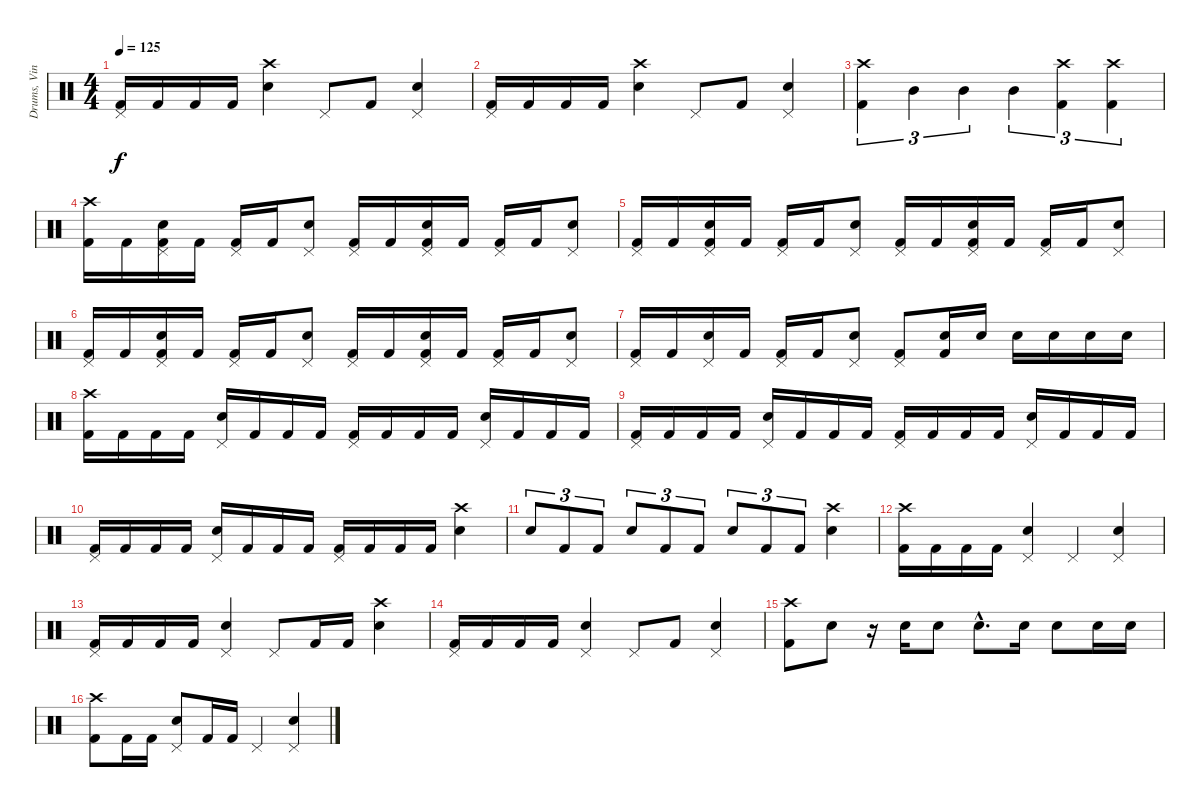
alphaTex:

\track ("Drums, Vinnie" "Drums, Vin") {instrument percussion}
\staff {score}
\articulation defaults
\ts (4 4)
\tempo 125
\clef neutral
\ks c
("Pedal Hi-Hat (hit)" "Kick (hit) 2").16{dy f} "Kick (hit) 2".16 "Kick (hit) 2".16 "Kick (hit) 2".16 ("Crash high (hit)" "Electric Snare (hit)").4 "Pedal Hi-Hat (hit)".8 "Kick (hit) 2".8 ("Pedal Hi-Hat (hit)" "Electric Snare (hit)").4 |
("Pedal Hi-Hat (hit)" "Kick (hit) 2").16 "Kick (hit) 2".16 "Kick (hit) 2".16 "Kick (hit) 2".16 ("Crash high (hit)" "Electric Snare (hit)").4 "Pedal Hi-Hat (hit)".8 "Kick (hit) 2".8 ("Pedal Hi-Hat (hit)" "Electric Snare (hit)").4 |
("Crash high (hit)" "Kick (hit) 2").4{tu (3 2)} "Mid Tom (hit)".4{tu (3 2)} "Mid Tom (hit)".4{tu (3 2)} "Mid Tom (hit)".4{tu (3 2)} ("Crash high (hit)" "Kick (hit) 2").4{tu (3 2)} ("Crash high (hit)" "Kick (hit) 2").4{tu (3 2)} |
("Crash high (hit)" "Kick (hit) 2").16 "Kick (hit) 2".16 ("Pedal Hi-Hat (hit)" "Electric Snare (hit)" "Kick (hit) 2").16 "Kick (hit) 2".16 ("Pedal Hi-Hat (hit)" "Kick (hit) 2").16 "Kick (hit) 2".16 ("Pedal Hi-Hat (hit)" "Electric Snare (hit)").8 ("Pedal Hi-Hat (hit)" "Kick (hit) 2").16 "Kick (hit) 2".16 ("Pedal Hi-Hat (hit)" "Electric Snare (hit)" "Kick (hit) 2").16 "Kick (hit) 2".16 ("Pedal Hi-Hat (hit)" "Kick (hit) 2").16 "Kick (hit) 2".16 ("Pedal Hi-Hat (hit)" "Electric Snare (hit)").8 |
("Pedal Hi-Hat (hit)" "Kick (hit) 2").16 "Kick (hit) 2".16 ("Pedal Hi-Hat (hit)" "Electric Snare (hit)" "Kick (hit) 2").16 "Kick (hit) 2".16 ("Pedal Hi-Hat (hit)" "Kick (hit) 2").16 "Kick (hit) 2".16 ("Pedal Hi-Hat (hit)" "Electric Snare (hit)").8 ("Pedal Hi-Hat (hit)" "Kick (hit) 2").16 "Kick (hit) 2".16 ("Pedal Hi-Hat (hit)" "Electric Snare (hit)" "Kick (hit) 2").16 "Kick (hit) 2".16 ("Pedal Hi-Hat (hit)" "Kick (hit) 2").16 "Kick (hit) 2".16 ("Pedal Hi-Hat (hit)" "Electric Snare (hit)").8 |
("Pedal Hi-Hat (hit)" "Kick (hit) 2").16 "Kick (hit) 2".16 ("Pedal Hi-Hat (hit)" "Electric Snare (hit)" "Kick (hit) 2").16 "Kick (hit) 2".16 ("Pedal Hi-Hat (hit)" "Kick (hit) 2").16 "Kick (hit) 2".16 ("Pedal Hi-Hat (hit)" "Electric Snare (hit)").8 ("Pedal Hi-Hat (hit)" "Kick (hit) 2").16 "Kick (hit) 2".16 ("Pedal Hi-Hat (hit)" "Electric Snare (hit)" "Kick (hit) 2").16 "Kick (hit) 2".16 ("Pedal Hi-Hat (hit)" "Kick (hit) 2").16 "Kick (hit) 2".16 ("Pedal Hi-Hat (hit)" "Electric Snare (hit)").8 |
("Pedal Hi-Hat (hit)" "Kick (hit) 2").16 "Kick (hit) 2".16 ("Pedal Hi-Hat (hit)" "Electric Snare (hit)").16 "Kick (hit) 2".16 ("Pedal Hi-Hat (hit)" "Kick (hit) 2").16 "Kick (hit) 2".16 ("Pedal Hi-Hat (hit)" "Electric Snare (hit)").8 ("Pedal Hi-Hat (hit)" "Kick (hit) 2").8 ("Electric Snare (hit)" "Kick (hit) 2").16 "Electric Snare (hit)".16 "Electric Snare (hit)".16 "Electric Snare (hit)".16 "Electric Snare (hit)".16 "Electric Snare (hit)".16 |
("Crash high (hit)" "Kick (hit) 2").16 "Kick (hit) 2".16 "Kick (hit) 2".16 "Kick (hit) 2".16 ("Pedal Hi-Hat (hit)" "Electric Snare (hit)").16 "Kick (hit) 2".16 "Kick (hit) 2".16 "Kick (hit) 2".16 ("Pedal Hi-Hat (hit)" "Kick (hit) 2").16 "Kick (hit) 2".16 "Kick (hit) 2".16 "Kick (hit) 2".16 ("Pedal Hi-Hat (hit)" "Electric Snare (hit)").16 "Kick (hit) 2".16 "Kick (hit) 2".16 "Kick (hit) 2".16 |
("Pedal Hi-Hat (hit)" "Kick (hit) 2").16 "Kick (hit) 2".16 "Kick (hit) 2".16 "Kick (hit) 2".16 ("Pedal Hi-Hat (hit)" "Electric Snare (hit)").16 "Kick (hit) 2".16 "Kick (hit) 2".16 "Kick (hit) 2".16 ("Pedal Hi-Hat (hit)" "Kick (hit) 2").16 "Kick (hit) 2".16 "Kick (hit) 2".16 "Kick (hit) 2".16 ("Pedal Hi-Hat (hit)" "Electric Snare (hit)").16 "Kick (hit) 2".16 "Kick (hit) 2".16 "Kick (hit) 2".16 |
("Pedal Hi-Hat (hit)" "Kick (hit) 2").16 "Kick (hit) 2".16 "Kick (hit) 2".16 "Kick (hit) 2".16 ("Pedal Hi-Hat (hit)" "Electric Snare (hit)").16 "Kick (hit) 2".16 "Kick (hit) 2".16 "Kick (hit) 2".16 ("Pedal Hi-Hat (hit)" "Kick (hit) 2").16 "Kick (hit) 2".16 "Kick (hit) 2".16 "Kick (hit) 2".16 ("Crash high (hit)" "Electric Snare (hit)").4 |
"Electric Snare (hit)".8{tu (3 2)} "Kick (hit) 2".8{tu (3 2)} "Kick (hit) 2".8{tu (3 2)} "Electric Snare (hit)".8{tu (3 2)} "Kick (hit) 2".8{tu (3 2)} "Kick (hit) 2".8{tu (3 2)} "Electric Snare (hit)".8{tu (3 2)} "Kick (hit) 2".8{tu (3 2)} "Kick (hit) 2".8{tu (3 2)} ("Crash high (hit)" "Electric Snare (hit)").4 |
("Crash high (hit)" "Kick (hit) 2").16 "Kick (hit) 2".16 "Kick (hit) 2".16 "Kick (hit) 2".16 ("Pedal Hi-Hat (hit)" "Electric Snare (hit)").4 "Pedal Hi-Hat (hit)".4 ("Pedal Hi-Hat (hit)" "Electric Snare (hit)").4 |
("Pedal Hi-Hat (hit)" "Kick (hit) 2").16 "Kick (hit) 2".16 "Kick (hit) 2".16 "Kick (hit) 2".16 ("Pedal Hi-Hat (hit)" "Electric Snare (hit)").4 "Pedal Hi-Hat (hit)".8 "Kick (hit) 2".16 "Kick (hit) 2".16 ("Crash high (hit)" "Electric Snare (hit)").4 |
("Pedal Hi-Hat (hit)" "Kick (hit) 2").16 "Kick (hit) 2".16 "Kick (hit) 2".16 "Kick (hit) 2".16 ("Pedal Hi-Hat (hit)" "Electric Snare (hit)").4 "Pedal Hi-Hat (hit)".8 "Kick (hit) 2".8 ("Pedal Hi-Hat (hit)" "Electric Snare (hit)").4 |
("Crash high (hit)" "Kick (hit) 2").8 "Electric Snare (hit)".8 r.16 "Electric Snare (hit)".16 "Electric Snare (hit)".8 "Electric Snare (hit)"{hac}.8{d} "Electric Snare (hit)".16 "Electric Snare (hit)".8 "Electric Snare (hit)".16 "Electric Snare (hit)".16 |
("Crash high (hit)" "Kick (hit) 2").8 "Kick (hit) 2".16 "Kick (hit) 2".16 ("Pedal Hi-Hat (hit)" "Electric Snare (hit)").8 "Kick (hit) 2".16 "Kick (hit) 2".16 "Pedal Hi-Hat (hit)".4 ("Pedal Hi-Hat (hit)" "Electric Snare (hit)").4
